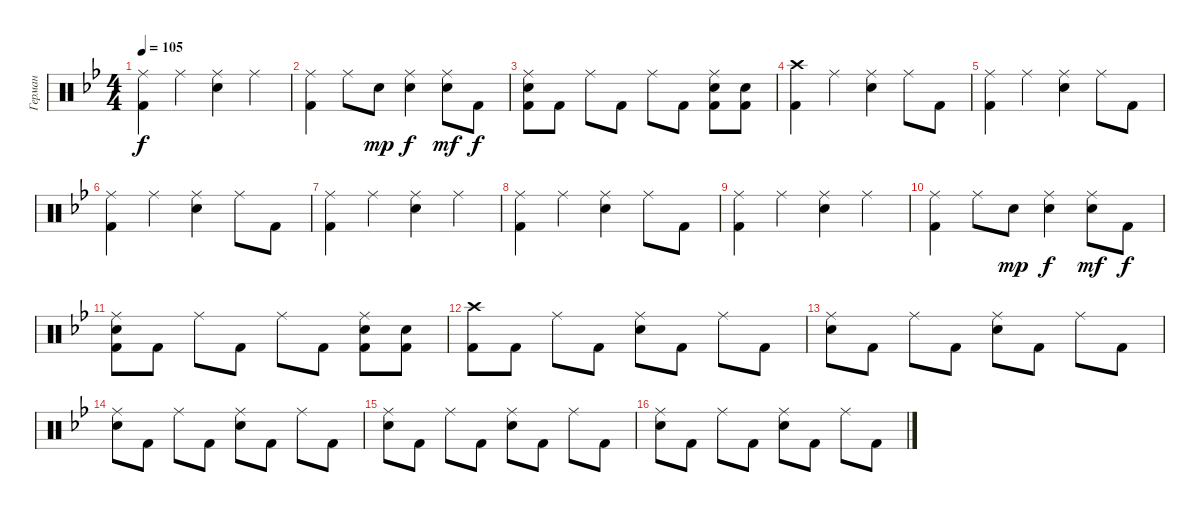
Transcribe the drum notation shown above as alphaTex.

\track ("Герман" "Герман") {instrument percussion}
\staff {score}
\articulation defaults
\ts (4 4)
\tempo 105
\clef neutral
\ks gminor
("Ride (middle)" "Kick (hit) 2").4{dy f} "Ride (middle)".4 ("Ride (middle)" "Electric Snare (hit)").4 "Ride (middle)".4 |
("Ride (middle)" "Kick (hit) 2").4 "Ride (middle)".8 "Electric Snare (hit)".8{dy mp} ("Ride (middle)" "Electric Snare (hit)").4{dy f} ("Ride (middle)" "Electric Snare (hit)").8{dy mf} "Kick (hit) 2".8{dy f} |
("Ride (middle)" "Electric Snare (hit)" "Kick (hit) 2").8 "Kick (hit) 2".8 "Ride (middle)".8 "Kick (hit) 2".8 "Ride (middle)".8 "Kick (hit) 2".8 ("Ride (middle)" "Electric Snare (hit)" "Kick (hit) 2").8 ("Electric Snare (hit)" "Kick (hit) 2").8 |
("Crash high (hit)" "Kick (hit) 2").4 "Ride (middle)".4 ("Ride (middle)" "Electric Snare (hit)").4 "Ride (middle)".8 "Kick (hit) 2".8 |
("Ride (middle)" "Kick (hit) 2").4 "Ride (middle)".4 ("Ride (middle)" "Electric Snare (hit)").4 "Ride (middle)".8 "Kick (hit) 2".8 |
("Ride (middle)" "Kick (hit) 2").4 "Ride (middle)".4 ("Ride (middle)" "Electric Snare (hit)").4 "Ride (middle)".8 "Kick (hit) 2".8 |
("Ride (middle)" "Kick (hit) 2").4 "Ride (middle)".4 ("Ride (middle)" "Electric Snare (hit)").4 "Ride (middle)".4 |
("Ride (middle)" "Kick (hit) 2").4 "Ride (middle)".4 ("Ride (middle)" "Electric Snare (hit)").4 "Ride (middle)".8 "Kick (hit) 2".8 |
("Ride (middle)" "Kick (hit) 2").4 "Ride (middle)".4 ("Ride (middle)" "Electric Snare (hit)").4 "Ride (middle)".4 |
("Ride (middle)" "Kick (hit) 2").4 "Ride (middle)".8 "Electric Snare (hit)".8{dy mp} ("Ride (middle)" "Electric Snare (hit)").4{dy f} ("Ride (middle)" "Electric Snare (hit)").8{dy mf} "Kick (hit) 2".8{dy f} |
("Ride (middle)" "Electric Snare (hit)" "Kick (hit) 2").8 "Kick (hit) 2".8 "Ride (middle)".8 "Kick (hit) 2".8 "Ride (middle)".8 "Kick (hit) 2".8 ("Ride (middle)" "Electric Snare (hit)" "Kick (hit) 2").8 ("Electric Snare (hit)" "Kick (hit) 2").8 |
("Crash high (hit)" "Kick (hit) 2").8 "Kick (hit) 2".8 "Ride (middle)".8 "Kick (hit) 2".8 ("Ride (middle)" "Electric Snare (hit)").8 "Kick (hit) 2".8 "Ride (middle)".8 "Kick (hit) 2".8 |
("Ride (middle)" "Electric Snare (hit)").8 "Kick (hit) 2".8 "Ride (middle)".8 "Kick (hit) 2".8 ("Ride (middle)" "Electric Snare (hit)").8 "Kick (hit) 2".8 "Ride (middle)".8 "Kick (hit) 2".8 |
("Ride (middle)" "Electric Snare (hit)").8 "Kick (hit) 2".8 "Ride (middle)".8 "Kick (hit) 2".8 ("Ride (middle)" "Electric Snare (hit)").8 "Kick (hit) 2".8 "Ride (middle)".8 "Kick (hit) 2".8 |
("Ride (middle)" "Electric Snare (hit)").8 "Kick (hit) 2".8 "Ride (middle)".8 "Kick (hit) 2".8 ("Ride (middle)" "Electric Snare (hit)").8 "Kick (hit) 2".8 "Ride (middle)".8 "Kick (hit) 2".8 |
("Ride (middle)" "Electric Snare (hit)").8 "Kick (hit) 2".8 "Ride (middle)".8 "Kick (hit) 2".8 ("Ride (middle)" "Electric Snare (hit)").8 "Kick (hit) 2".8 "Ride (middle)".8 "Kick (hit) 2".8
